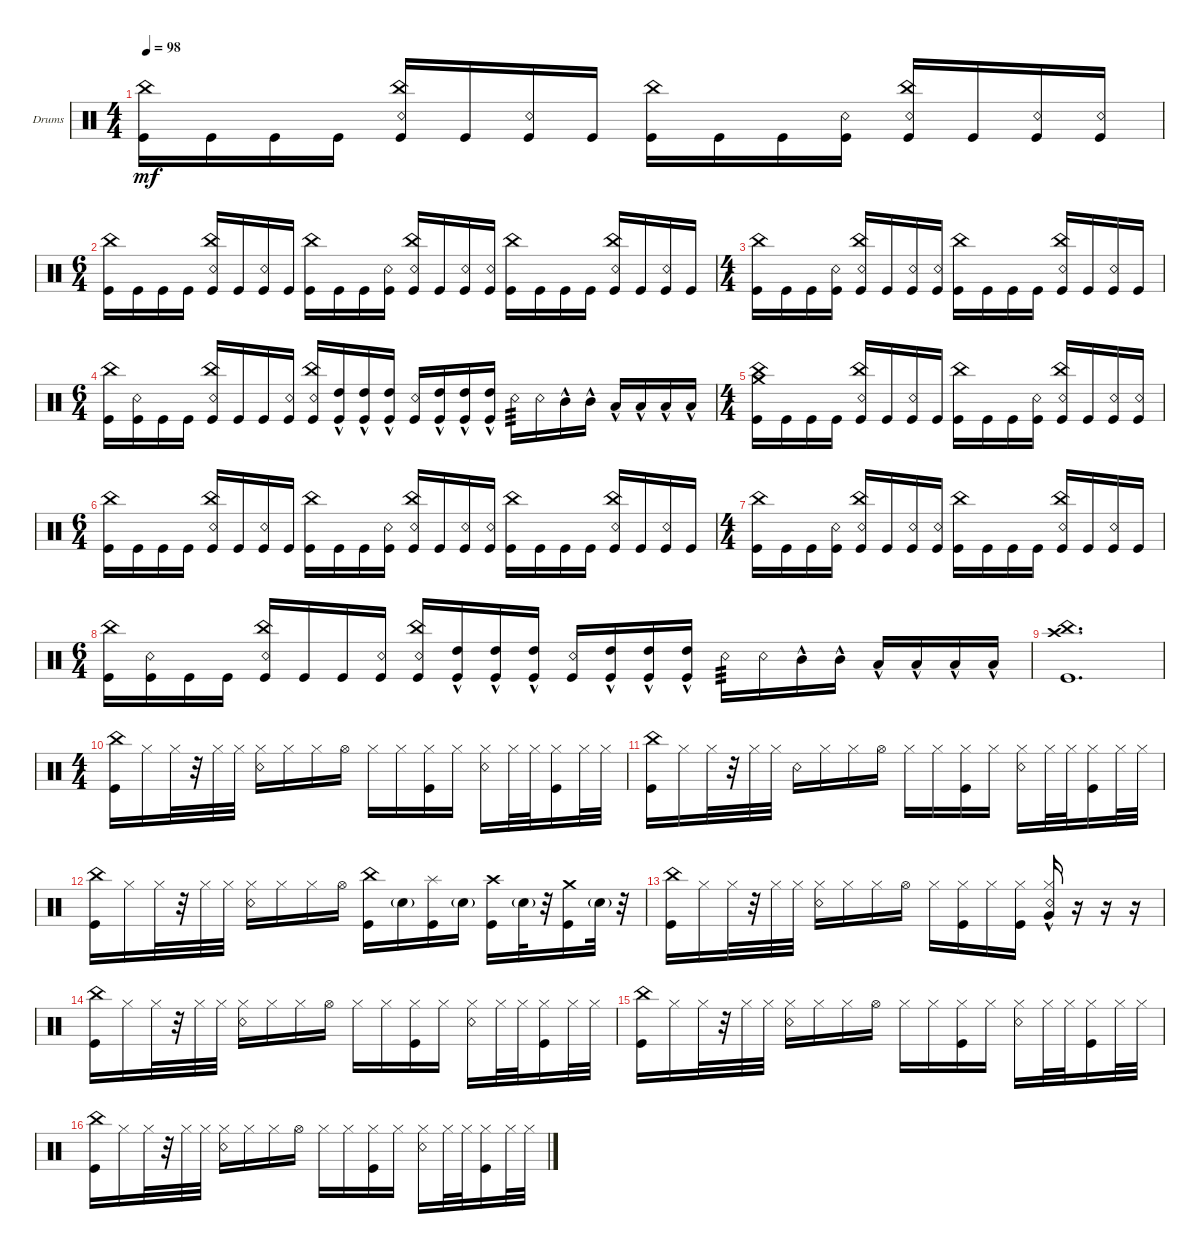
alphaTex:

\defaultSystemsLayout 4
\bracketExtendMode groupsimilarinstruments
\multiBarRest
\firstSystemTrackNameOrientation horizontal
\otherSystemsTrackNameOrientation horizontal
\track ("Drumkit" "Drums") {instrument percussion}
\staff {score}
\articulation defaults
\ts (4 4)
\tempo 98
\clef neutral
\ks c
("Kick (hit)" "China (hit)").16{dy mf} "Kick (hit)".16 "Kick (hit)".16 "Kick (hit)".16 ("Kick (hit)" "Snare (rim shot)" "China (hit)").16 "Kick (hit)".16 ("Kick (hit)" "Snare (rim shot)").16 "Kick (hit)".16 ("Kick (hit)" "China (hit)").16 "Kick (hit)".16 "Kick (hit)".16 ("Kick (hit)" "Snare (rim shot)").16 ("Kick (hit)" "China (hit)" "Snare (rim shot)").16 "Kick (hit)".16 ("Kick (hit)" "Snare (rim shot)").16 ("Kick (hit)" "Snare (rim shot)").16 |
\ts (6 4)
("Kick (hit)" "China (hit)").16 "Kick (hit)".16 "Kick (hit)".16 "Kick (hit)".16 ("Kick (hit)" "Snare (rim shot)" "China (hit)").16 "Kick (hit)".16 ("Kick (hit)" "Snare (rim shot)").16 "Kick (hit)".16 ("Kick (hit)" "China (hit)").16 "Kick (hit)".16 "Kick (hit)".16 ("Kick (hit)" "Snare (rim shot)").16 ("Kick (hit)" "China (hit)" "Snare (rim shot)").16 "Kick (hit)".16 ("Kick (hit)" "Snare (rim shot)").16 ("Kick (hit)" "Snare (rim shot)").16 ("Kick (hit)" "China (hit)").16 "Kick (hit)".16 "Kick (hit)".16 "Kick (hit)".16 ("Kick (hit)" "Snare (rim shot)" "China (hit)").16 "Kick (hit)".16 ("Kick (hit)" "Snare (rim shot)").16 "Kick (hit)".16 |
\ts (4 4)
("Kick (hit)" "China (hit)").16 "Kick (hit)".16 "Kick (hit)".16 ("Kick (hit)" "Snare (rim shot)").16 ("Kick (hit)" "China (hit)" "Snare (rim shot)").16 "Kick (hit)".16 ("Kick (hit)" "Snare (rim shot)").16 ("Kick (hit)" "Snare (rim shot)").16 ("Kick (hit)" "China (hit)").16 "Kick (hit)".16 "Kick (hit)".16 "Kick (hit)".16 ("Kick (hit)" "Snare (rim shot)" "China (hit)").16 "Kick (hit)".16 ("Kick (hit)" "Snare (rim shot)").16 "Kick (hit)".16 |
\ts (6 4)
("Kick (hit)" "China (hit)").16 ("Kick (hit)" "Snare (rim shot)").16 "Kick (hit)".16 "Kick (hit)".16 ("Kick (hit)" "China (hit)" "Snare (rim shot)").16 "Kick (hit)".16 "Kick (hit)".16 ("Kick (hit)" "Snare (rim shot)").16 ("Kick (hit)" "China (hit)" "Snare (rim shot)").16 ("Kick (hit)" "High Tom (hit)"{hac}).16 ("Kick (hit)" "High Tom (hit)"{hac}).16 ("Kick (hit)" "High Tom (hit)"{hac}).16 ("Kick (hit)" "Snare (rim shot)").16 ("Kick (hit)" "High Tom (hit)"{hac}).16 ("Kick (hit)" "High Tom (hit)"{hac}).16 ("Kick (hit)" "High Tom (hit)"{hac}).16 "Snare (rim shot)".16{tp 3} "Snare (rim shot)".16 "Mid Tom (hit)"{hac}.16 "Mid Tom (hit)"{hac}.16 "Low Tom (hit)"{hac}.16 "Low Tom (hit)"{hac}.16 "Low Tom (hit)"{hac}.16 "Low Tom (hit)"{hac}.16 |
\ts (4 4)
("Kick (hit)" "China (hit)" "Crash medium (hit)").16 "Kick (hit)".16 "Kick (hit)".16 "Kick (hit)".16 ("Kick (hit)" "Snare (rim shot)" "China (hit)").16 "Kick (hit)".16 ("Kick (hit)" "Snare (rim shot)").16 "Kick (hit)".16 ("Kick (hit)" "China (hit)").16 "Kick (hit)".16 "Kick (hit)".16 ("Kick (hit)" "Snare (rim shot)").16 ("Kick (hit)" "China (hit)" "Snare (rim shot)").16 "Kick (hit)".16 ("Kick (hit)" "Snare (rim shot)").16 ("Kick (hit)" "Snare (rim shot)").16 |
\ts (6 4)
("Kick (hit)" "China (hit)").16 "Kick (hit)".16 "Kick (hit)".16 "Kick (hit)".16 ("Kick (hit)" "Snare (rim shot)" "China (hit)").16 "Kick (hit)".16 ("Kick (hit)" "Snare (rim shot)").16 "Kick (hit)".16 ("Kick (hit)" "China (hit)").16 "Kick (hit)".16 "Kick (hit)".16 ("Kick (hit)" "Snare (rim shot)").16 ("Kick (hit)" "China (hit)" "Snare (rim shot)").16 "Kick (hit)".16 ("Kick (hit)" "Snare (rim shot)").16 ("Kick (hit)" "Snare (rim shot)").16 ("Kick (hit)" "China (hit)").16 "Kick (hit)".16 "Kick (hit)".16 "Kick (hit)".16 ("Kick (hit)" "Snare (rim shot)" "China (hit)").16 "Kick (hit)".16 ("Kick (hit)" "Snare (rim shot)").16 "Kick (hit)".16 |
\ts (4 4)
("Kick (hit)" "China (hit)").16 "Kick (hit)".16 "Kick (hit)".16 ("Kick (hit)" "Snare (rim shot)").16 ("Kick (hit)" "China (hit)" "Snare (rim shot)").16 "Kick (hit)".16 ("Kick (hit)" "Snare (rim shot)").16 ("Kick (hit)" "Snare (rim shot)").16 ("Kick (hit)" "China (hit)").16 "Kick (hit)".16 "Kick (hit)".16 "Kick (hit)".16 ("Kick (hit)" "Snare (rim shot)" "China (hit)").16 "Kick (hit)".16 ("Kick (hit)" "Snare (rim shot)").16 "Kick (hit)".16 |
\ts (6 4)
("Kick (hit)" "China (hit)").16 ("Kick (hit)" "Snare (rim shot)").16 "Kick (hit)".16 "Kick (hit)".16 ("Kick (hit)" "China (hit)" "Snare (rim shot)").16 "Kick (hit)".16 "Kick (hit)".16 ("Kick (hit)" "Snare (rim shot)").16 ("Kick (hit)" "China (hit)" "Snare (rim shot)").16 ("Kick (hit)" "High Tom (hit)"{hac}).16 ("Kick (hit)" "High Tom (hit)"{hac}).16 ("Kick (hit)" "High Tom (hit)"{hac}).16 ("Kick (hit)" "Snare (rim shot)").16 ("Kick (hit)" "High Tom (hit)"{hac}).16 ("Kick (hit)" "High Tom (hit)"{hac}).16 ("Kick (hit)" "High Tom (hit)"{hac}).16 "Snare (rim shot)".16{tp 3} "Snare (rim shot)".16 "Mid Tom (hit)"{hac}.16 "Mid Tom (hit)"{hac}.16 "Low Tom (hit)"{hac}.16 "Low Tom (hit)"{hac}.16 "Low Tom (hit)"{hac}.16 "Low Tom (hit)"{hac}.16 |
("Kick (hit)" "China (hit)" "Crash high (hit)").1{d} |
\ts (4 4)
("Kick (hit)" "China (hit)").16 "Hi-Hat (closed)".16 "Hi-Hat (closed)".32 r.32 "Hi-Hat (closed)".32 "Hi-Hat (closed)".32 ("Hi-Hat (closed)" "Snare (rim shot)").16 "Hi-Hat (closed)".16 "Hi-Hat (closed)".16 "Hi-Hat (open)".16 "Hi-Hat (closed)".16 "Hi-Hat (closed)".16 ("Hi-Hat (closed)" "Kick (hit)").16 "Hi-Hat (closed)".16 ("Hi-Hat (closed)" "Snare (rim shot)").16 "Hi-Hat (closed)".32 "Hi-Hat (closed)".32 ("Hi-Hat (closed)" "Kick (hit)").16 "Hi-Hat (closed)".32 "Hi-Hat (closed)".32 |
("Kick (hit)" "China (hit)").16 "Hi-Hat (closed)".16 "Hi-Hat (closed)".32 r.32 "Hi-Hat (closed)".32 "Hi-Hat (closed)".32 "Snare (rim shot)".16 "Hi-Hat (closed)".16 "Hi-Hat (closed)".16 "Hi-Hat (open)".16 "Hi-Hat (closed)".16 "Hi-Hat (closed)".16 ("Hi-Hat (closed)" "Kick (hit)").16 "Hi-Hat (closed)".16 ("Hi-Hat (closed)" "Snare (rim shot)").16 "Hi-Hat (closed)".32 "Hi-Hat (closed)".32 ("Hi-Hat (closed)" "Kick (hit)").16 "Hi-Hat (closed)".32 "Hi-Hat (closed)".32 |
("Kick (hit)" "China (hit)").16 "Hi-Hat (closed)".16 "Hi-Hat (closed)".32 r.32 "Hi-Hat (closed)".32 "Hi-Hat (closed)".32 ("Hi-Hat (closed)" "Snare (rim shot)").16 "Hi-Hat (closed)".16 "Hi-Hat (closed)".16 "Hi-Hat (open)".16 ("China (hit)" "Kick (hit)").16 "Snare (hit) 2"{g}.16 ("Kick (hit)" "Splash (hit)").16 "Snare (hit) 2"{g}.16 ("Kick (hit)" "Crash high (hit)").16 "Snare (hit) 2"{g}.32 r.32 ("Kick (hit)" "Crash medium (hit)").16 "Snare (hit) 2"{g}.32 r.32 |
("Kick (hit)" "China (hit)").16 "Hi-Hat (closed)".16 "Hi-Hat (closed)".32 r.32 "Hi-Hat (closed)".32 "Hi-Hat (closed)".32 ("Hi-Hat (closed)" "Snare (rim shot)").16 "Hi-Hat (closed)".16 "Hi-Hat (closed)".16 "Hi-Hat (open)".16 "Hi-Hat (closed)".16 ("Hi-Hat (closed)" "Kick (hit)").16 "Hi-Hat (closed)".16 ("Hi-Hat (closed)" "Kick (hit)").16 ("Hi-Hat (closed)" "Snare (rim shot)" "Very Low Tom (hit)"{hac}).16 r.16 r.16 r.16 |
("Kick (hit)" "China (hit)").16 "Hi-Hat (closed)".16 "Hi-Hat (closed)".32 r.32 "Hi-Hat (closed)".32 "Hi-Hat (closed)".32 ("Hi-Hat (closed)" "Snare (rim shot)").16 "Hi-Hat (closed)".16 "Hi-Hat (closed)".16 "Hi-Hat (open)".16 "Hi-Hat (closed)".16 "Hi-Hat (closed)".16 ("Hi-Hat (closed)" "Kick (hit)").16 "Hi-Hat (closed)".16 ("Hi-Hat (closed)" "Snare (rim shot)").16 "Hi-Hat (closed)".32 "Hi-Hat (closed)".32 ("Hi-Hat (closed)" "Kick (hit)").16 "Hi-Hat (closed)".32 "Hi-Hat (closed)".32 |
("Kick (hit)" "China (hit)").16 "Hi-Hat (closed)".16 "Hi-Hat (closed)".32 r.32 "Hi-Hat (closed)".32 "Hi-Hat (closed)".32 ("Hi-Hat (closed)" "Snare (rim shot)").16 "Hi-Hat (closed)".16 "Hi-Hat (closed)".16 "Hi-Hat (open)".16 "Hi-Hat (closed)".16 "Hi-Hat (closed)".16 ("Hi-Hat (closed)" "Kick (hit)").16 "Hi-Hat (closed)".16 ("Hi-Hat (closed)" "Snare (rim shot)").16 "Hi-Hat (closed)".32 "Hi-Hat (closed)".32 ("Hi-Hat (closed)" "Kick (hit)").16 "Hi-Hat (closed)".32 "Hi-Hat (closed)".32 |
("Kick (hit)" "China (hit)").16 "Hi-Hat (closed)".16 "Hi-Hat (closed)".32 r.32 "Hi-Hat (closed)".32 "Hi-Hat (closed)".32 ("Hi-Hat (closed)" "Snare (rim shot)").16 "Hi-Hat (closed)".16 "Hi-Hat (closed)".16 "Hi-Hat (open)".16 "Hi-Hat (closed)".16 "Hi-Hat (closed)".16 ("Hi-Hat (closed)" "Kick (hit)").16 "Hi-Hat (closed)".16 ("Hi-Hat (closed)" "Snare (rim shot)").16 "Hi-Hat (closed)".32 "Hi-Hat (closed)".32 ("Hi-Hat (closed)" "Kick (hit)").16 "Hi-Hat (closed)".32 "Hi-Hat (closed)".32
